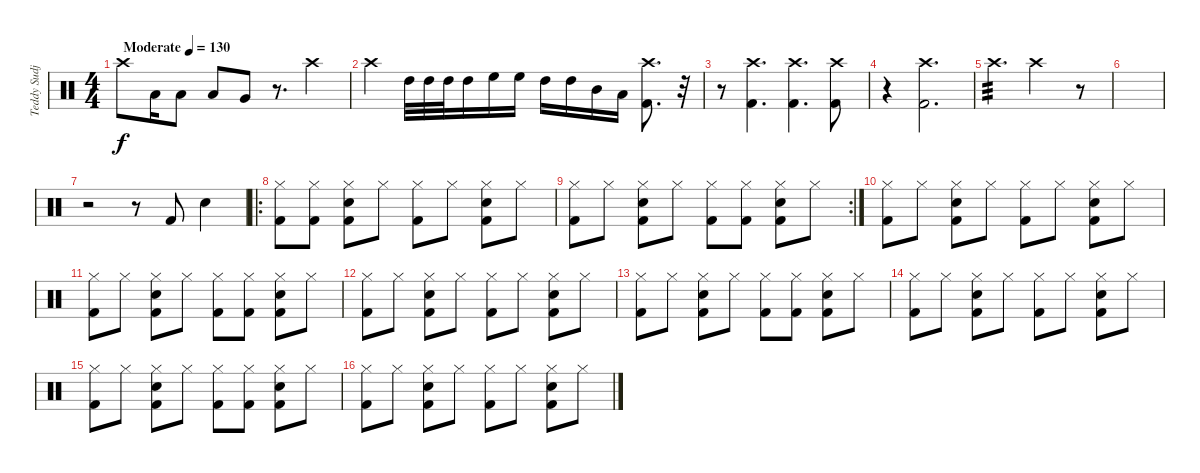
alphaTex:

\track ("Teddy Sudjaya (drum)" "Teddy Sudj") {instrument percussion}
\staff {score}
\articulation defaults
\ts (4 4)
\tempo (130 "Moderate")
\clef neutral
\ks c "Crash high (hit)".8{dy f} "Low Tom (hit)".16 "Low Tom (hit)".8 "Low Tom (hit)".8 "Very Low Tom (hit)".8
r.8{d} "Crash high (hit)".4 |
"Crash high (hit)".4 "High Tom (hit)".32 "High Tom (hit)".32 "High Tom (hit)".32 "High Tom (hit)".16 "High Floor Tom (hit)".16 "High Floor Tom (hit)".16 "High Tom (hit)".16 "High Tom (hit)".16 "Mid Tom (hit)".16 "Low Tom (hit)".16 ("Crash high (hit)" "Kick (hit) 2").8{d} r.32 |
r.8 ("Crash high (hit)" "Kick (hit) 2").4{d} ("Crash high (hit)" "Kick (hit) 2").4{d} ("Crash high (hit)" "Kick (hit) 2").8 |
r.4 ("Crash high (hit)" "Kick (hit) 2").2{d} |
"Crash high (hit)".4{d tp 3} "Crash high (hit)".2 r.8 |
|
r.2 r.8 "Kick (hit) 2".8 "Snare (hit) 2".4 |
\ro
("Hi-Hat (closed)" "Kick (hit) 2").8 ("Hi-Hat (closed)" "Kick (hit) 2").8 ("Snare (hit) 2" "Hi-Hat (closed)" "Kick (hit) 2").8 "Hi-Hat (closed)".8 ("Hi-Hat (closed)" "Kick (hit) 2").8 "Hi-Hat (closed)".8 ("Snare (hit) 2" "Hi-Hat (closed)" "Kick (hit) 2").8 "Hi-Hat (closed)".8 |
\rc 2
("Hi-Hat (closed)" "Kick (hit) 2").8 "Hi-Hat (closed)".8 ("Snare (hit) 2" "Hi-Hat (closed)" "Kick (hit) 2").8 "Hi-Hat (closed)".8 ("Hi-Hat (closed)" "Kick (hit) 2").8 ("Hi-Hat (closed)" "Kick (hit) 2").8 ("Snare (hit) 2" "Hi-Hat (closed)" "Kick (hit) 2").8 "Hi-Hat (closed)".8 |
("Hi-Hat (closed)" "Kick (hit) 2").8 "Hi-Hat (closed)".8 ("Snare (hit) 2" "Hi-Hat (closed)" "Kick (hit) 2").8 "Hi-Hat (closed)".8 ("Hi-Hat (closed)" "Kick (hit) 2").8 "Hi-Hat (closed)".8 ("Snare (hit) 2" "Hi-Hat (closed)" "Kick (hit) 2").8 "Hi-Hat (closed)".8 |
("Hi-Hat (closed)" "Kick (hit) 2").8 "Hi-Hat (closed)".8 ("Snare (hit) 2" "Hi-Hat (closed)" "Kick (hit) 2").8 "Hi-Hat (closed)".8 ("Hi-Hat (closed)" "Kick (hit) 2").8 ("Hi-Hat (closed)" "Kick (hit) 2").8 ("Snare (hit) 2" "Hi-Hat (closed)" "Kick (hit) 2").8 "Hi-Hat (closed)".8 |
("Hi-Hat (closed)" "Kick (hit) 2").8 "Hi-Hat (closed)".8 ("Snare (hit) 2" "Hi-Hat (closed)" "Kick (hit) 2").8 "Hi-Hat (closed)".8 ("Hi-Hat (closed)" "Kick (hit) 2").8 "Hi-Hat (closed)".8 ("Snare (hit) 2" "Hi-Hat (closed)" "Kick (hit) 2").8 "Hi-Hat (closed)".8 |
("Hi-Hat (closed)" "Kick (hit) 2").8 "Hi-Hat (closed)".8 ("Snare (hit) 2" "Hi-Hat (closed)" "Kick (hit) 2").8 "Hi-Hat (closed)".8 ("Hi-Hat (closed)" "Kick (hit) 2").8 ("Hi-Hat (closed)" "Kick (hit) 2").8 ("Snare (hit) 2" "Hi-Hat (closed)" "Kick (hit) 2").8 "Hi-Hat (closed)".8 |
("Hi-Hat (closed)" "Kick (hit) 2").8 "Hi-Hat (closed)".8 ("Snare (hit) 2" "Hi-Hat (closed)" "Kick (hit) 2").8 "Hi-Hat (closed)".8 ("Hi-Hat (closed)" "Kick (hit) 2").8 "Hi-Hat (closed)".8 ("Snare (hit) 2" "Hi-Hat (closed)" "Kick (hit) 2").8 "Hi-Hat (closed)".8 |
("Hi-Hat (closed)" "Kick (hit) 2").8 "Hi-Hat (closed)".8 ("Snare (hit) 2" "Hi-Hat (closed)" "Kick (hit) 2").8 "Hi-Hat (closed)".8 ("Hi-Hat (closed)" "Kick (hit) 2").8 ("Hi-Hat (closed)" "Kick (hit) 2").8 ("Snare (hit) 2" "Hi-Hat (closed)" "Kick (hit) 2").8 "Hi-Hat (closed)".8 |
("Hi-Hat (closed)" "Kick (hit) 2").8 "Hi-Hat (closed)".8 ("Snare (hit) 2" "Hi-Hat (closed)" "Kick (hit) 2").8 "Hi-Hat (closed)".8 ("Hi-Hat (closed)" "Kick (hit) 2").8 "Hi-Hat (closed)".8 ("Snare (hit) 2" "Hi-Hat (closed)" "Kick (hit) 2").8 "Hi-Hat (closed)".8
